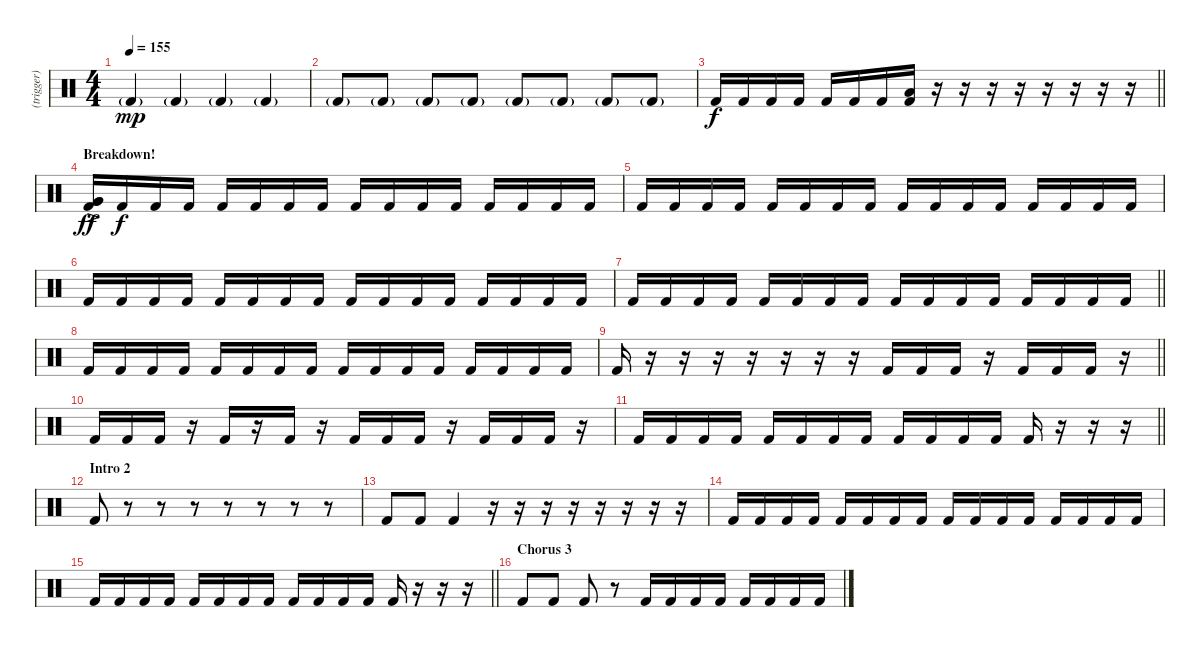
\track ("(trigger)" "(trigger)") {instrument percussion}
\staff {score}
\articulation defaults
\ts (4 4)
\tempo 155
\clef neutral
\ks c "Kick (hit) 2"{g}.4{dy mp} "Kick (hit) 2"{g}.4 "Kick (hit) 2"{g}.4 "Kick (hit) 2"{g}.4
|
"Kick (hit) 2"{g}.8 "Kick (hit) 2"{g}.8 "Kick (hit) 2"{g}.8 "Kick (hit) 2"{g}.8 "Kick (hit) 2"{g}.8 "Kick (hit) 2"{g}.8 "Kick (hit) 2"{g}.8 "Kick (hit) 2"{g}.8 |
\barLineRight lightlight "Kick (hit) 2".16{dy f} "Kick (hit) 2".16 "Kick (hit) 2".16 "Kick (hit) 2".16 "Kick (hit) 2".16 "Kick (hit) 2".16 "Kick (hit) 2".16
("Low Tom (hit)" "Kick (hit) 2").16 r.16 r.16 r.16 r.16 r.16 r.16 r.16 r.16 |
\section ("" "Breakdown!")
("Very Low Tom (hit)"{ac} "Very Low Tom (hit)"{ac} "Kick (hit) 2").16{dy ff} "Kick (hit) 2".16{dy f} "Kick (hit) 2".16 "Kick (hit) 2".16 "Kick (hit) 2".16 "Kick (hit) 2".16 "Kick (hit) 2".16 "Kick (hit) 2".16 "Kick (hit) 2".16 "Kick (hit) 2".16 "Kick (hit) 2".16 "Kick (hit) 2".16 "Kick (hit) 2".16 "Kick (hit) 2".16 "Kick (hit) 2".16 "Kick (hit) 2".16 |
"Kick (hit) 2".16 "Kick (hit) 2".16 "Kick (hit) 2".16 "Kick (hit) 2".16 "Kick (hit) 2".16 "Kick (hit) 2".16 "Kick (hit) 2".16 "Kick (hit) 2".16 "Kick (hit) 2".16 "Kick (hit) 2".16 "Kick (hit) 2".16 "Kick (hit) 2".16 "Kick (hit) 2".16 "Kick (hit) 2".16 "Kick (hit) 2".16 "Kick (hit) 2".16 |
"Kick (hit) 2".16 "Kick (hit) 2".16 "Kick (hit) 2".16 "Kick (hit) 2".16 "Kick (hit) 2".16 "Kick (hit) 2".16 "Kick (hit) 2".16 "Kick (hit) 2".16 "Kick (hit) 2".16 "Kick (hit) 2".16 "Kick (hit) 2".16 "Kick (hit) 2".16 "Kick (hit) 2".16 "Kick (hit) 2".16 "Kick (hit) 2".16 "Kick (hit) 2".16 |
\barLineRight lightlight "Kick (hit) 2".16 "Kick (hit) 2".16 "Kick (hit) 2".16 "Kick (hit) 2".16 "Kick (hit) 2".16 "Kick (hit) 2".16 "Kick (hit) 2".16 "Kick (hit) 2".16 "Kick (hit) 2".16 "Kick (hit) 2".16 "Kick (hit) 2".16 "Kick (hit) 2".16 "Kick (hit) 2".16 "Kick (hit) 2".16 "Kick (hit) 2".16 "Kick (hit) 2".16
|
"Kick (hit) 2".16 "Kick (hit) 2".16 "Kick (hit) 2".16 "Kick (hit) 2".16 "Kick (hit) 2".16 "Kick (hit) 2".16 "Kick (hit) 2".16 "Kick (hit) 2".16 "Kick (hit) 2".16 "Kick (hit) 2".16 "Kick (hit) 2".16 "Kick (hit) 2".16 "Kick (hit) 2".16 "Kick (hit) 2".16 "Kick (hit) 2".16 "Kick (hit) 2".16 |
\barLineRight lightlight "Kick (hit) 2".16
r.16 r.16 r.16 r.16 r.16 r.16 r.16 "Kick (hit) 2".16 "Kick (hit) 2".16 "Kick (hit) 2".16 r.16 "Kick (hit) 2".16 "Kick (hit) 2".16 "Kick (hit) 2".16 r.16 |
"Kick (hit) 2".16 "Kick (hit) 2".16 "Kick (hit) 2".16 r.16 "Kick (hit) 2".16 r.16 "Kick (hit) 2".16 r.16 "Kick (hit) 2".16 "Kick (hit) 2".16 "Kick (hit) 2".16 r.16 "Kick (hit) 2".16 "Kick (hit) 2".16 "Kick (hit) 2".16 r.16 |
\barLineRight lightlight "Kick (hit) 2".16 "Kick (hit) 2".16 "Kick (hit) 2".16 "Kick (hit) 2".16 "Kick (hit) 2".16 "Kick (hit) 2".16 "Kick (hit) 2".16 "Kick (hit) 2".16 "Kick (hit) 2".16 "Kick (hit) 2".16 "Kick (hit) 2".16 "Kick (hit) 2".16 "Kick (hit) 2".16
r.16 r.16 r.16 |
\section ("" "Intro 2")
"Kick (hit) 2".8 r.8 r.8 r.8 r.8 r.8 r.8 r.8 |
"Kick (hit) 2".8 "Kick (hit) 2".8 "Kick (hit) 2".4 r.16 r.16 r.16 r.16 r.16 r.16 r.16 r.16 |
"Kick (hit) 2".16 "Kick (hit) 2".16 "Kick (hit) 2".16 "Kick (hit) 2".16 "Kick (hit) 2".16 "Kick (hit) 2".16 "Kick (hit) 2".16 "Kick (hit) 2".16 "Kick (hit) 2".16 "Kick (hit) 2".16 "Kick (hit) 2".16 "Kick (hit) 2".16 "Kick (hit) 2".16 "Kick (hit) 2".16 "Kick (hit) 2".16 "Kick (hit) 2".16 |
\barLineRight lightlight "Kick (hit) 2".16 "Kick (hit) 2".16 "Kick (hit) 2".16 "Kick (hit) 2".16 "Kick (hit) 2".16 "Kick (hit) 2".16 "Kick (hit) 2".16 "Kick (hit) 2".16 "Kick (hit) 2".16 "Kick (hit) 2".16 "Kick (hit) 2".16 "Kick (hit) 2".16 "Kick (hit) 2".16
r.16 r.16 r.16 |
\section ("" "Chorus 3")
"Kick (hit) 2".8 "Kick (hit) 2".8 "Kick (hit) 2".8 r.8 "Kick (hit) 2".16 "Kick (hit) 2".16 "Kick (hit) 2".16 "Kick (hit) 2".16 "Kick (hit) 2".16 "Kick (hit) 2".16 "Kick (hit) 2".16 "Kick (hit) 2".16
